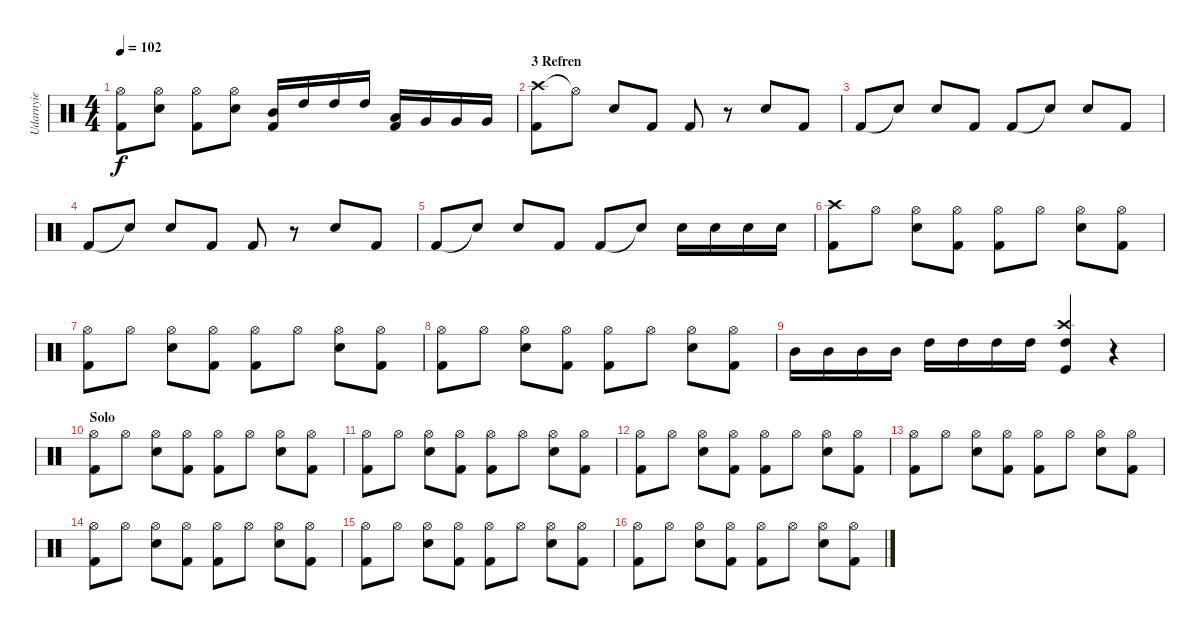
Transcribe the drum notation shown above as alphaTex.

\track ("Udarnyie" "Udarnyie") {instrument percussion}
\staff {score}
\articulation defaults
\ts (4 4)
\tempo 102
\clef neutral
\ks c
("Hi-Hat (open)" "Kick (hit) 2").8{dy f} ("Hi-Hat (open)" "Snare (hit) 2").8 ("Hi-Hat (open)" "Kick (hit) 2").8 ("Hi-Hat (open)" "Snare (hit) 2").8 ("Mid Tom (hit)" "Kick (hit) 2").16 "High Tom (hit)".16 "High Tom (hit)".16 "High Tom (hit)".16 ("Low Tom (hit)" "Kick (hit) 2").16 "Very Low Tom (hit)".16 "Very Low Tom (hit)".16 "Very Low Tom (hit)".16 |
\section ("" "3 Refren")
("Crash high (hit)" "Kick (hit) 2").8 "Hi-Hat (open)"{t}.8 "Snare (hit) 2".8 "Kick (hit) 2".8 "Kick (hit) 2".8 r.8 "Snare (hit) 2".8 "Kick (hit) 2".8 |
"Kick (hit) 2".8 "Snare (hit)"{t}.8 "Snare (hit) 2".8 "Kick (hit) 2".8 "Kick (hit) 2".8 "Snare (hit)"{t}.8 "Snare (hit) 2".8 "Kick (hit) 2".8 |
"Kick (hit) 2".8 "Snare (hit)"{t}.8 "Snare (hit) 2".8 "Kick (hit) 2".8 "Kick (hit) 2".8 r.8 "Snare (hit) 2".8 "Kick (hit) 2".8 |
"Kick (hit) 2".8 "Snare (hit)"{t}.8 "Snare (hit) 2".8 "Kick (hit) 2".8 "Kick (hit) 2".8 "Snare (hit)"{t}.8 "Electric Snare (hit)".16 "Electric Snare (hit)".16 "Electric Snare (hit)".16 "Electric Snare (hit)".16 |
("Crash high (hit)" "Kick (hit) 2").8 "Hi-Hat (open)".8 ("Hi-Hat (open)" "Snare (hit) 2").8 ("Hi-Hat (open)" "Kick (hit) 2").8 ("Hi-Hat (open)" "Kick (hit) 2").8 "Hi-Hat (open)".8 ("Hi-Hat (open)" "Snare (hit) 2").8 ("Hi-Hat (open)" "Kick (hit) 2").8 |
("Hi-Hat (open)" "Kick (hit) 2").8 "Hi-Hat (open)".8 ("Hi-Hat (open)" "Snare (hit) 2").8 ("Hi-Hat (open)" "Kick (hit) 2").8 ("Hi-Hat (open)" "Kick (hit) 2").8 "Hi-Hat (open)".8 ("Hi-Hat (open)" "Snare (hit) 2").8 ("Hi-Hat (open)" "Kick (hit) 2").8 |
("Hi-Hat (open)" "Kick (hit) 2").8 "Hi-Hat (open)".8 ("Hi-Hat (open)" "Snare (hit) 2").8 ("Hi-Hat (open)" "Kick (hit) 2").8 ("Hi-Hat (open)" "Kick (hit) 2").8 "Hi-Hat (open)".8 ("Hi-Hat (open)" "Snare (hit) 2").8 ("Hi-Hat (open)" "Kick (hit) 2").8 |
"Mid Tom (hit)".16 "Mid Tom (hit)".16 "Mid Tom (hit)".16 "Mid Tom (hit)".16 "High Tom (hit)".16 "High Tom (hit)".16 "High Tom (hit)".16 "High Tom (hit)".16 ("Kick (hit)" "High Tom (hit)" "Crash high (hit)").4 r.4 |
\section ("" "Solo")
("Hi-Hat (open)" "Kick (hit) 2").8 "Hi-Hat (open)".8 ("Hi-Hat (open)" "Snare (hit) 2").8 ("Hi-Hat (open)" "Kick (hit) 2").8 ("Hi-Hat (open)" "Kick (hit) 2").8 "Hi-Hat (open)".8 ("Hi-Hat (open)" "Snare (hit) 2").8 ("Hi-Hat (open)" "Kick (hit) 2").8 |
("Hi-Hat (open)" "Kick (hit) 2").8 "Hi-Hat (open)".8 ("Hi-Hat (open)" "Snare (hit) 2").8 ("Hi-Hat (open)" "Kick (hit) 2").8 ("Hi-Hat (open)" "Kick (hit) 2").8 "Hi-Hat (open)".8 ("Hi-Hat (open)" "Snare (hit) 2").8 ("Hi-Hat (open)" "Kick (hit) 2").8 |
("Hi-Hat (open)" "Kick (hit) 2").8 "Hi-Hat (open)".8 ("Hi-Hat (open)" "Snare (hit) 2").8 ("Hi-Hat (open)" "Kick (hit) 2").8 ("Hi-Hat (open)" "Kick (hit) 2").8 "Hi-Hat (open)".8 ("Hi-Hat (open)" "Snare (hit) 2").8 ("Hi-Hat (open)" "Kick (hit) 2").8 |
("Hi-Hat (open)" "Kick (hit) 2").8 "Hi-Hat (open)".8 ("Hi-Hat (open)" "Snare (hit) 2").8 ("Hi-Hat (open)" "Kick (hit) 2").8 ("Hi-Hat (open)" "Kick (hit) 2").8 "Hi-Hat (open)".8 ("Hi-Hat (open)" "Snare (hit) 2").8 ("Hi-Hat (open)" "Kick (hit) 2").8 |
("Hi-Hat (open)" "Kick (hit) 2").8 "Hi-Hat (open)".8 ("Hi-Hat (open)" "Snare (hit) 2").8 ("Hi-Hat (open)" "Kick (hit) 2").8 ("Hi-Hat (open)" "Kick (hit) 2").8 "Hi-Hat (open)".8 ("Hi-Hat (open)" "Snare (hit) 2").8 ("Hi-Hat (open)" "Kick (hit) 2").8 |
("Hi-Hat (open)" "Kick (hit) 2").8 "Hi-Hat (open)".8 ("Hi-Hat (open)" "Snare (hit) 2").8 ("Hi-Hat (open)" "Kick (hit) 2").8 ("Hi-Hat (open)" "Kick (hit) 2").8 "Hi-Hat (open)".8 ("Hi-Hat (open)" "Snare (hit) 2").8 ("Hi-Hat (open)" "Kick (hit) 2").8 |
("Hi-Hat (open)" "Kick (hit) 2").8 "Hi-Hat (open)".8 ("Hi-Hat (open)" "Snare (hit) 2").8 ("Hi-Hat (open)" "Kick (hit) 2").8 ("Hi-Hat (open)" "Kick (hit) 2").8 "Hi-Hat (open)".8 ("Hi-Hat (open)" "Snare (hit) 2").8 ("Hi-Hat (open)" "Kick (hit) 2").8
